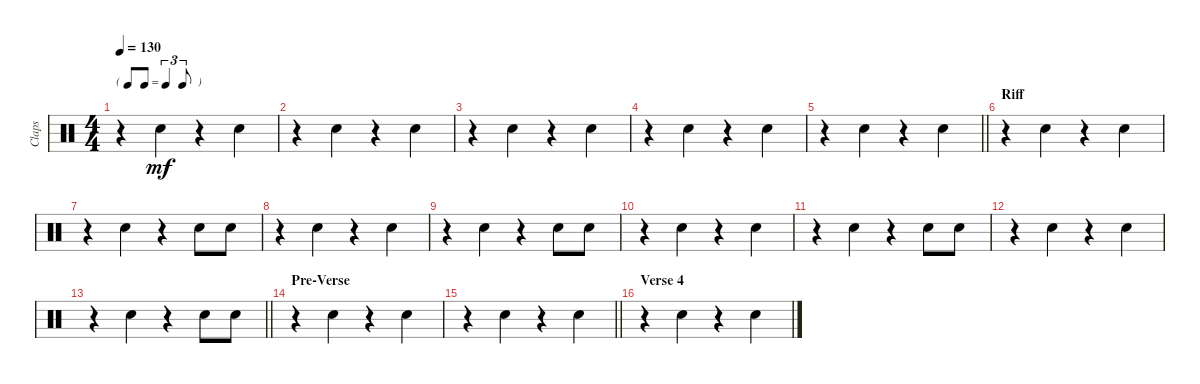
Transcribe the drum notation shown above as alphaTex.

\track ("Claps" "Claps") {instrument percussion}
\staff {score}
\articulation defaults
\ts (4 4)
\tf triplet8th
\tempo 130
\clef neutral
\ks c
r.4{dy mf} "Hand Clap (hit)".4 r.4 "Hand Clap (hit)".4 |
r.4 "Hand Clap (hit)".4 r.4 "Hand Clap (hit)".4 |
r.4 "Hand Clap (hit)".4 r.4 "Hand Clap (hit)".4 |
r.4 "Hand Clap (hit)".4 r.4 "Hand Clap (hit)".4 |
\barLineRight lightlight
r.4 "Hand Clap (hit)".4 r.4 "Hand Clap (hit)".4 |
\section ("" "Riff")
r.4 "Hand Clap (hit)".4 r.4 "Hand Clap (hit)".4 |
r.4 "Hand Clap (hit)".4 r.4 "Hand Clap (hit)".8 "Hand Clap (hit)".8 |
r.4 "Hand Clap (hit)".4 r.4 "Hand Clap (hit)".4 |
r.4 "Hand Clap (hit)".4 r.4 "Hand Clap (hit)".8 "Hand Clap (hit)".8 |
r.4 "Hand Clap (hit)".4 r.4 "Hand Clap (hit)".4 |
r.4 "Hand Clap (hit)".4 r.4 "Hand Clap (hit)".8 "Hand Clap (hit)".8 |
r.4 "Hand Clap (hit)".4 r.4 "Hand Clap (hit)".4 |
\barLineRight lightlight
r.4 "Hand Clap (hit)".4 r.4 "Hand Clap (hit)".8 "Hand Clap (hit)".8 |
\section ("" "Pre-Verse")
r.4 "Hand Clap (hit)".4 r.4 "Hand Clap (hit)".4 |
\barLineRight lightlight
r.4 "Hand Clap (hit)".4 r.4 "Hand Clap (hit)".4 |
\section ("" "Verse 4")
r.4 "Hand Clap (hit)".4 r.4 "Hand Clap (hit)".4
